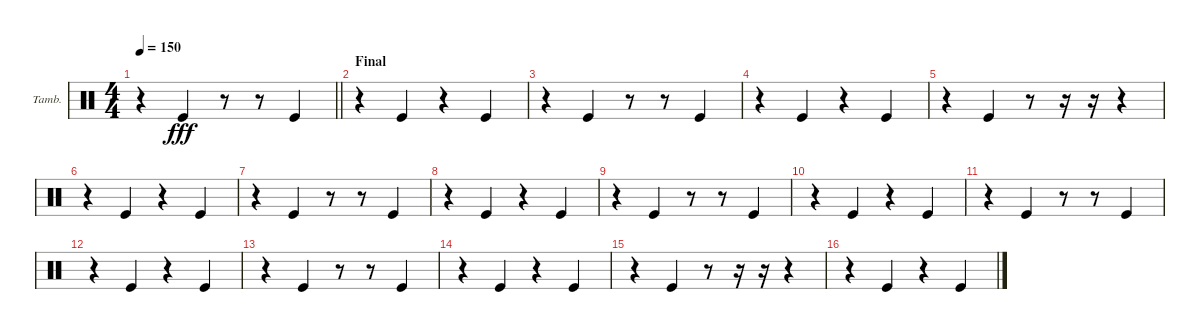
\bracketExtendMode groupsimilarinstruments
\firstSystemTrackNameOrientation horizontal
\otherSystemsTrackNameOrientation horizontal
\track ("Tambourine" "Tamb.") {instrument percussion}
\staff {score}
\articulation defaults
\ts (4 4)
\tempo 150
\clef neutral
\barLineRight lightlight
\ks c
r.4{dy fff} "Kick (hit)".4 r.8 r.8 "Kick (hit)".4 |
\section ("" "Final")
r.4 "Kick (hit)".4 r.4 "Kick (hit)".4 |
r.4 "Kick (hit)".4 r.8 r.8 "Kick (hit)".4 |
r.4 "Kick (hit)".4 r.4 "Kick (hit)".4 |
r.4 "Kick (hit)".4 r.8 r.16 r.16 r.4 |
r.4 "Kick (hit)".4 r.4 "Kick (hit)".4 |
r.4 "Kick (hit)".4 r.8 r.8 "Kick (hit)".4 |
r.4 "Kick (hit)".4 r.4 "Kick (hit)".4 |
r.4 "Kick (hit)".4 r.8 r.8 "Kick (hit)".4 |
r.4 "Kick (hit)".4 r.4 "Kick (hit)".4 |
r.4 "Kick (hit)".4 r.8 r.8 "Kick (hit)".4 |
r.4 "Kick (hit)".4 r.4 "Kick (hit)".4 |
r.4 "Kick (hit)".4 r.8 r.8 "Kick (hit)".4 |
r.4 "Kick (hit)".4 r.4 "Kick (hit)".4 |
r.4 "Kick (hit)".4 r.8 r.16 r.16 r.4 |
r.4 "Kick (hit)".4 r.4 "Kick (hit)".4
